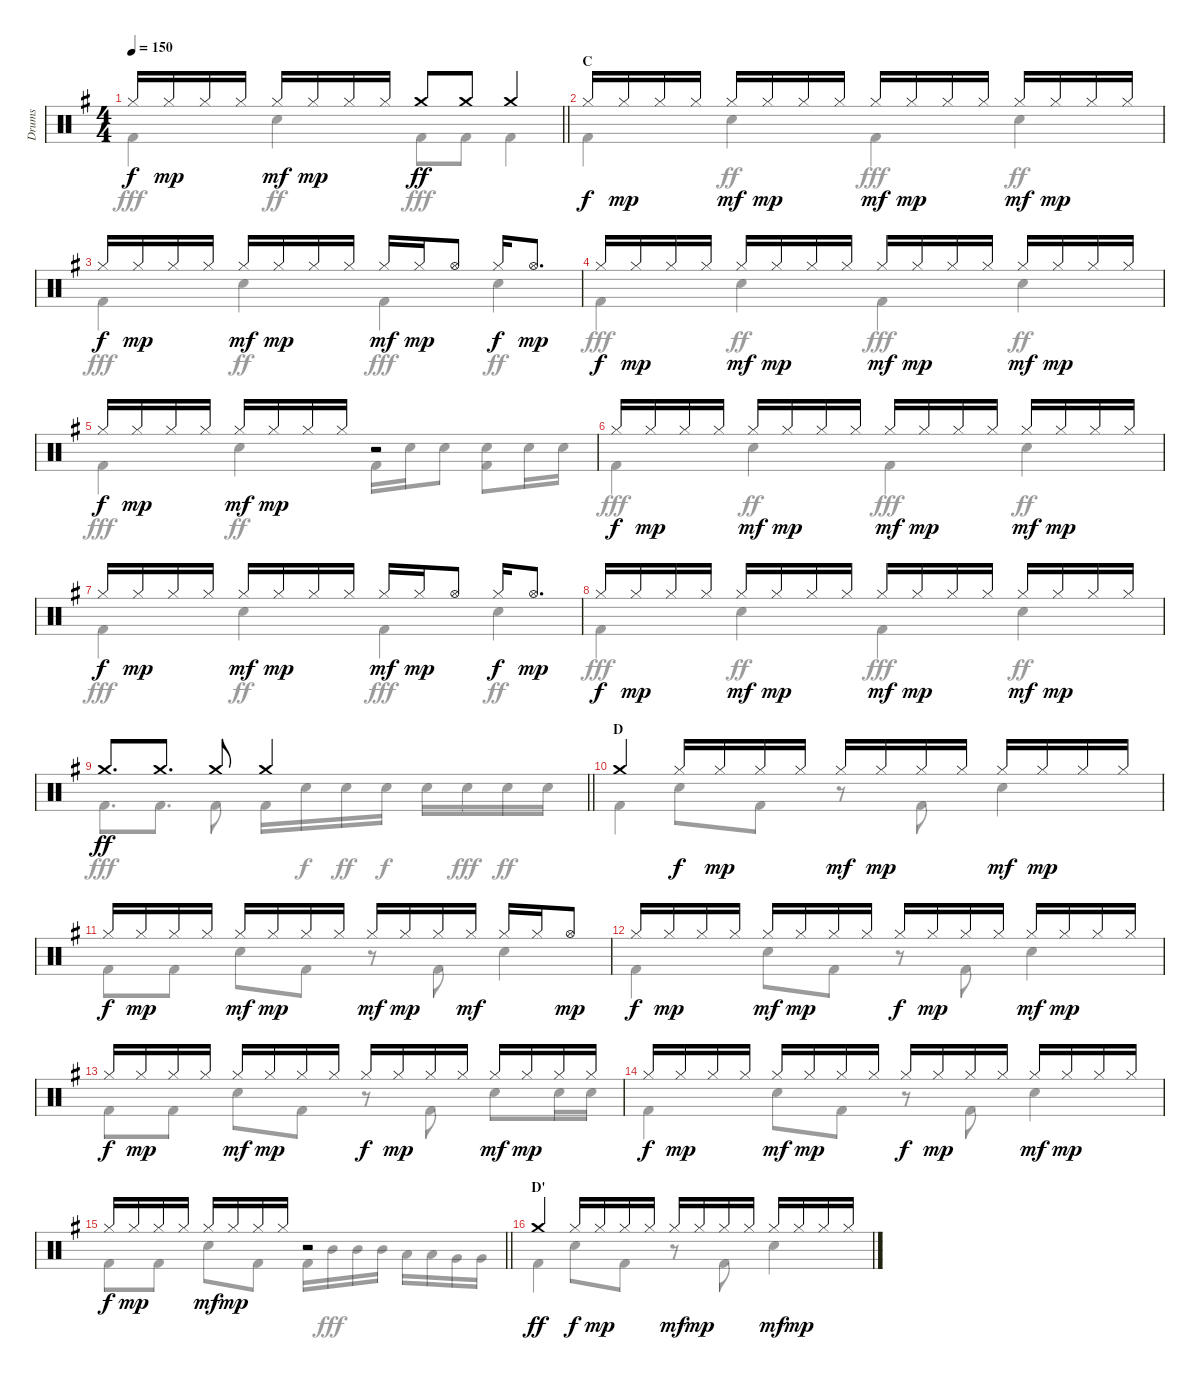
\track ("Drums" "Drums") {instrument percussion}
\staff {score}
\articulation defaults
\voice
\ts (4 4)
\tempo 150
\clef neutral
\barLineRight lightlight
\ks eminor "Hi-Hat (closed)".16{dy f} "Hi-Hat (closed)".16{dy mp} "Hi-Hat (closed)".16 "Hi-Hat (closed)".16 "Hi-Hat (closed)".16{dy mf} "Hi-Hat (closed)".16{dy mp} "Hi-Hat (closed)".16 "Hi-Hat (closed)".16 "Crash medium (hit)".8{dy ff} "Crash medium (hit)".8 "Crash medium (hit)".4
|
\section ("" "C")
"Hi-Hat (closed)".16{dy f} "Hi-Hat (closed)".16{dy mp} "Hi-Hat (closed)".16 "Hi-Hat (closed)".16 "Hi-Hat (closed)".16{dy mf} "Hi-Hat (closed)".16{dy mp} "Hi-Hat (closed)".16 "Hi-Hat (closed)".16 "Hi-Hat (closed)".16{dy mf} "Hi-Hat (closed)".16{dy mp} "Hi-Hat (closed)".16 "Hi-Hat (closed)".16 "Hi-Hat (closed)".16{dy mf} "Hi-Hat (closed)".16{dy mp} "Hi-Hat (closed)".16 "Hi-Hat (closed)".16 |
"Hi-Hat (closed)".16{dy f} "Hi-Hat (closed)".16{dy mp} "Hi-Hat (closed)".16 "Hi-Hat (closed)".16 "Hi-Hat (closed)".16{dy mf} "Hi-Hat (closed)".16{dy mp} "Hi-Hat (closed)".16 "Hi-Hat (closed)".16 "Hi-Hat (closed)".16{dy mf} "Hi-Hat (closed)".16{dy mp} "Hi-Hat (open)".8 "Hi-Hat (closed)".16{dy f} "Hi-Hat (open)".8{d dy mp} |
"Hi-Hat (closed)".16{dy f} "Hi-Hat (closed)".16{dy mp} "Hi-Hat (closed)".16 "Hi-Hat (closed)".16 "Hi-Hat (closed)".16{dy mf} "Hi-Hat (closed)".16{dy mp} "Hi-Hat (closed)".16 "Hi-Hat (closed)".16 "Hi-Hat (closed)".16{dy mf} "Hi-Hat (closed)".16{dy mp} "Hi-Hat (closed)".16 "Hi-Hat (closed)".16 "Hi-Hat (closed)".16{dy mf} "Hi-Hat (closed)".16{dy mp} "Hi-Hat (closed)".16 "Hi-Hat (closed)".16 |
"Hi-Hat (closed)".16{dy f} "Hi-Hat (closed)".16{dy mp} "Hi-Hat (closed)".16 "Hi-Hat (closed)".16 "Hi-Hat (closed)".16{dy mf} "Hi-Hat (closed)".16{dy mp} "Hi-Hat (closed)".16 "Hi-Hat (closed)".16 r.2 |
"Hi-Hat (closed)".16{dy f} "Hi-Hat (closed)".16{dy mp} "Hi-Hat (closed)".16 "Hi-Hat (closed)".16 "Hi-Hat (closed)".16{dy mf} "Hi-Hat (closed)".16{dy mp} "Hi-Hat (closed)".16 "Hi-Hat (closed)".16 "Hi-Hat (closed)".16{dy mf} "Hi-Hat (closed)".16{dy mp} "Hi-Hat (closed)".16 "Hi-Hat (closed)".16 "Hi-Hat (closed)".16{dy mf} "Hi-Hat (closed)".16{dy mp} "Hi-Hat (closed)".16 "Hi-Hat (closed)".16 |
"Hi-Hat (closed)".16{dy f} "Hi-Hat (closed)".16{dy mp} "Hi-Hat (closed)".16 "Hi-Hat (closed)".16 "Hi-Hat (closed)".16{dy mf} "Hi-Hat (closed)".16{dy mp} "Hi-Hat (closed)".16 "Hi-Hat (closed)".16 "Hi-Hat (closed)".16{dy mf} "Hi-Hat (closed)".16{dy mp} "Hi-Hat (open)".8 "Hi-Hat (closed)".16{dy f} "Hi-Hat (open)".8{d dy mp} |
"Hi-Hat (closed)".16{dy f} "Hi-Hat (closed)".16{dy mp} "Hi-Hat (closed)".16 "Hi-Hat (closed)".16 "Hi-Hat (closed)".16{dy mf} "Hi-Hat (closed)".16{dy mp} "Hi-Hat (closed)".16 "Hi-Hat (closed)".16 "Hi-Hat (closed)".16{dy mf} "Hi-Hat (closed)".16{dy mp} "Hi-Hat (closed)".16 "Hi-Hat (closed)".16 "Hi-Hat (closed)".16{dy mf} "Hi-Hat (closed)".16{dy mp} "Hi-Hat (closed)".16 "Hi-Hat (closed)".16 |
\barLineRight lightlight "Crash medium (hit)".8{d dy ff} "Crash medium (hit)".8{d} "Crash medium (hit)".8 "Crash medium (hit)".2
|
\section ("" "D")
"Crash medium (hit)".4 "Hi-Hat (closed)".16{dy f} "Hi-Hat (closed)".16{dy mp} "Hi-Hat (closed)".16 "Hi-Hat (closed)".16 "Hi-Hat (closed)".16{dy mf} "Hi-Hat (closed)".16{dy mp} "Hi-Hat (closed)".16 "Hi-Hat (closed)".16 "Hi-Hat (closed)".16{dy mf} "Hi-Hat (closed)".16{dy mp} "Hi-Hat (closed)".16 "Hi-Hat (closed)".16 |
"Hi-Hat (closed)".16{dy f} "Hi-Hat (closed)".16{dy mp} "Hi-Hat (closed)".16 "Hi-Hat (closed)".16 "Hi-Hat (closed)".16{dy mf} "Hi-Hat (closed)".16{dy mp} "Hi-Hat (closed)".16 "Hi-Hat (closed)".16 "Hi-Hat (closed)".16{dy mf} "Hi-Hat (closed)".16{dy mp} "Hi-Hat (closed)".16 "Hi-Hat (closed)".16{dy mf} "Hi-Hat (closed)".16 "Hi-Hat (closed)".16 "Hi-Hat (open)".8{dy mp} |
"Hi-Hat (closed)".16{dy f} "Hi-Hat (closed)".16{dy mp} "Hi-Hat (closed)".16 "Hi-Hat (closed)".16 "Hi-Hat (closed)".16{dy mf} "Hi-Hat (closed)".16{dy mp} "Hi-Hat (closed)".16 "Hi-Hat (closed)".16 "Hi-Hat (closed)".16{dy f} "Hi-Hat (closed)".16{dy mp} "Hi-Hat (closed)".16 "Hi-Hat (closed)".16 "Hi-Hat (closed)".16{dy mf} "Hi-Hat (closed)".16{dy mp} "Hi-Hat (closed)".16 "Hi-Hat (closed)".16 |
"Hi-Hat (closed)".16{dy f} "Hi-Hat (closed)".16{dy mp} "Hi-Hat (closed)".16 "Hi-Hat (closed)".16 "Hi-Hat (closed)".16{dy mf} "Hi-Hat (closed)".16{dy mp} "Hi-Hat (closed)".16 "Hi-Hat (closed)".16 "Hi-Hat (closed)".16{dy f} "Hi-Hat (closed)".16{dy mp} "Hi-Hat (closed)".16 "Hi-Hat (closed)".16 "Hi-Hat (closed)".16{dy mf} "Hi-Hat (closed)".16{dy mp} "Hi-Hat (closed)".16 "Hi-Hat (closed)".16 |
"Hi-Hat (closed)".16{dy f} "Hi-Hat (closed)".16{dy mp} "Hi-Hat (closed)".16 "Hi-Hat (closed)".16 "Hi-Hat (closed)".16{dy mf} "Hi-Hat (closed)".16{dy mp} "Hi-Hat (closed)".16 "Hi-Hat (closed)".16 "Hi-Hat (closed)".16{dy f} "Hi-Hat (closed)".16{dy mp} "Hi-Hat (closed)".16 "Hi-Hat (closed)".16 "Hi-Hat (closed)".16{dy mf} "Hi-Hat (closed)".16{dy mp} "Hi-Hat (closed)".16 "Hi-Hat (closed)".16 |
\barLineRight lightlight "Hi-Hat (closed)".16{dy f} "Hi-Hat (closed)".16{dy mp} "Hi-Hat (closed)".16 "Hi-Hat (closed)".16 "Hi-Hat (closed)".16{dy mf} "Hi-Hat (closed)".16{dy mp} "Hi-Hat (closed)".16 "Hi-Hat (closed)".16
r.2 |
\section ("" "D'")
"Crash medium (hit)".4{dy ff} "Hi-Hat (closed)".16{dy f} "Hi-Hat (closed)".16{dy mp} "Hi-Hat (closed)".16 "Hi-Hat (closed)".16 "Hi-Hat (closed)".16{dy mf} "Hi-Hat (closed)".16{dy mp} "Hi-Hat (closed)".16 "Hi-Hat (closed)".16 "Hi-Hat (closed)".16{dy mf} "Hi-Hat (closed)".16{dy mp} "Hi-Hat (closed)".16 "Hi-Hat (closed)".16
\voice
\clef neutral
\ottava regular
\simile none
\barLineRight lightlight
\ks eminor "Kick (hit) 2".4{dy fff} "Electric Snare (hit)".4{dy ff} "Kick (hit) 2".8{dy fff} "Kick (hit) 2".8 "Kick (hit) 2".4
|
"Kick (hit) 2".4 "Electric Snare (hit)".4{dy ff} "Kick (hit) 2".4{dy fff} "Electric Snare (hit)".4{dy ff} |
"Kick (hit) 2".4{dy fff} "Electric Snare (hit)".4{dy ff} "Kick (hit) 2".4{dy fff} "Electric Snare (hit)".4{dy ff} |
"Kick (hit) 2".4{dy fff} "Electric Snare (hit)".4{dy ff} "Kick (hit) 2".4{dy fff} "Electric Snare (hit)".4{dy ff} |
"Kick (hit) 2".4{dy fff} "Electric Snare (hit)".4{dy ff} "Kick (hit) 2".16 "Electric Snare (hit)".16 "Electric Snare (hit)".8 ("Electric Snare (hit)" "Kick (hit) 2").8 "Electric Snare (hit)".16 "Electric Snare (hit)".16 |
"Kick (hit) 2".4{dy fff} "Electric Snare (hit)".4{dy ff} "Kick (hit) 2".4{dy fff} "Electric Snare (hit)".4{dy ff} |
"Kick (hit) 2".4{dy fff} "Electric Snare (hit)".4{dy ff} "Kick (hit) 2".4{dy fff} "Electric Snare (hit)".4{dy ff} |
"Kick (hit) 2".4{dy fff} "Electric Snare (hit)".4{dy ff} "Kick (hit) 2".4{dy fff} "Electric Snare (hit)".4{dy ff} |
\barLineRight lightlight "Kick (hit) 2".8{d dy fff} "Kick (hit) 2".8{d} "Kick (hit) 2".8 "Kick (hit) 2".16 "Electric Snare (hit)".16{dy f} "Electric Snare (hit)".16{dy ff} "Electric Snare (hit)".16{dy f} "Electric Snare (hit)".16 "Electric Snare (hit)".16{dy fff} "Electric Snare (hit)".16{dy ff} "Electric Snare (hit)".16
|
"Kick (hit) 2".4 "Electric Snare (hit)".8 "Kick (hit) 2".8 r.8 "Kick (hit) 2".8 "Electric Snare (hit)".4 |
"Kick (hit) 2".8 "Kick (hit) 2".8 "Electric Snare (hit)".8 "Kick (hit) 2".8 r.8 "Kick (hit) 2".8 "Electric Snare (hit)".4 |
"Kick (hit) 2".4 "Electric Snare (hit)".8 "Kick (hit) 2".8 r.8 "Kick (hit) 2".8 "Electric Snare (hit)".4 |
"Kick (hit) 2".8 "Kick (hit) 2".8 "Electric Snare (hit)".8 "Kick (hit) 2".8 r.8 "Kick (hit) 2".8 "Electric Snare (hit)".8 "Electric Snare (hit)".16 "Electric Snare (hit)".16 |
"Kick (hit) 2".4 "Electric Snare (hit)".8 "Kick (hit) 2".8 r.8 "Kick (hit) 2".8 "Electric Snare (hit)".4 |
\barLineRight lightlight "Kick (hit) 2".8 "Kick (hit) 2".8 "Electric Snare (hit)".8 "Kick (hit) 2".8 "Kick (hit) 2".16 "Mid Tom (hit)".16{dy fff} "Mid Tom (hit)".16 "Mid Tom (hit)".16 "Low Tom (hit)".16 "Low Tom (hit)".16 "Very Low Tom (hit)".16 "Very Low Tom (hit)".16
|
"Kick (hit) 2".4{dy ff} "Electric Snare (hit)".8 "Kick (hit) 2".8 r.8 "Kick (hit) 2".8 "Electric Snare (hit)".4
